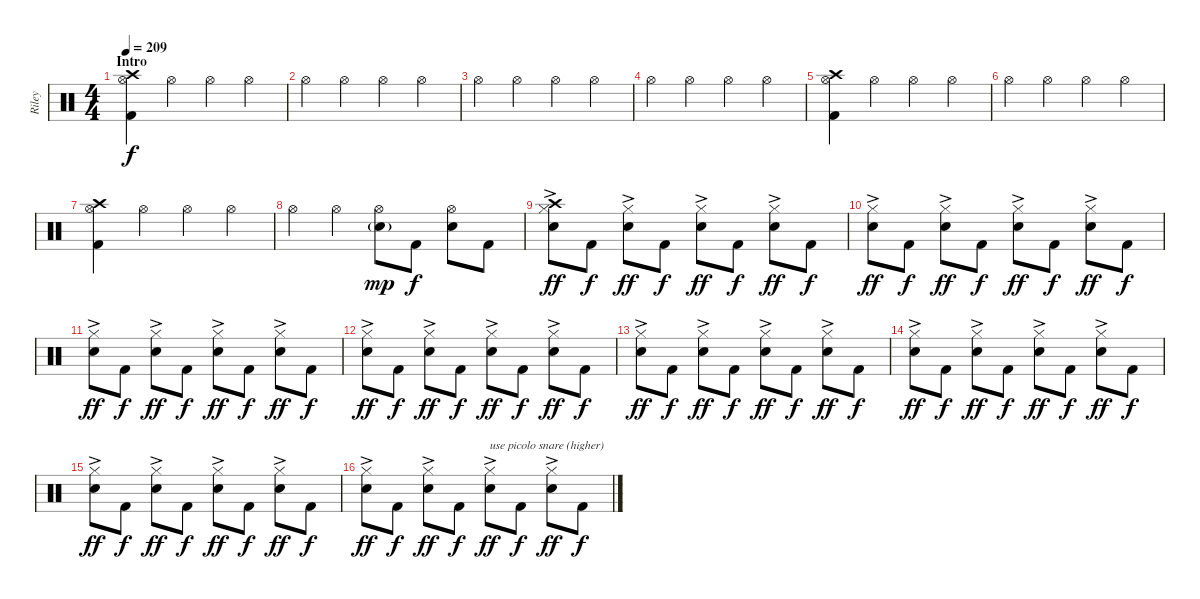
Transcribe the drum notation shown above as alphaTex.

\track ("Riley" "Riley") {instrument percussion}
\staff {score}
\articulation defaults
\ts (4 4)
\section ("" "Intro")
\tempo 209
\clef neutral
\ks c
("Crash high (hit)" "Hi-Hat (open)" "Kick (hit) 2").4{dy f} "Hi-Hat (open)".4 "Hi-Hat (open)".4 "Hi-Hat (open)".4 |
"Hi-Hat (open)".4 "Hi-Hat (open)".4 "Hi-Hat (open)".4 "Hi-Hat (open)".4 |
"Hi-Hat (open)".4 "Hi-Hat (open)".4 "Hi-Hat (open)".4 "Hi-Hat (open)".4 |
"Hi-Hat (open)".4 "Hi-Hat (open)".4 "Hi-Hat (open)".4 "Hi-Hat (open)".4 |
("Crash high (hit)" "Hi-Hat (open)" "Kick (hit) 2").4 "Hi-Hat (open)".4 "Hi-Hat (open)".4 "Hi-Hat (open)".4 |
"Hi-Hat (open)".4 "Hi-Hat (open)".4 "Hi-Hat (open)".4 "Hi-Hat (open)".4 |
("Crash high (hit)" "Hi-Hat (open)" "Kick (hit) 2").4 "Hi-Hat (open)".4 "Hi-Hat (open)".4 "Hi-Hat (open)".4 |
"Hi-Hat (open)".4 "Hi-Hat (open)".4 ("Hi-Hat (open)" "Electric Snare (hit)"{g}).8{dy mp} "Kick (hit) 2".8{dy f} ("Hi-Hat (open)" "Electric Snare (hit)").8 "Kick (hit) 2".8 |
("Crash high (hit)" "Hi-Hat (closed)" "Electric Snare (hit)"{ac}).8{dy ff} "Kick (hit) 2".8{dy f} ("Hi-Hat (closed)" "Electric Snare (hit)"{ac}).8{dy ff} "Kick (hit) 2".8{dy f} ("Hi-Hat (closed)" "Electric Snare (hit)"{ac}).8{dy ff} "Kick (hit) 2".8{dy f} ("Hi-Hat (closed)" "Electric Snare (hit)"{ac}).8{dy ff} "Kick (hit) 2".8{dy f} |
("Hi-Hat (closed)" "Electric Snare (hit)"{ac}).8{dy ff} "Kick (hit) 2".8{dy f} ("Hi-Hat (closed)" "Electric Snare (hit)"{ac}).8{dy ff} "Kick (hit) 2".8{dy f} ("Hi-Hat (closed)" "Electric Snare (hit)"{ac}).8{dy ff} "Kick (hit) 2".8{dy f} ("Hi-Hat (closed)" "Electric Snare (hit)"{ac}).8{dy ff} "Kick (hit) 2".8{dy f} |
("Hi-Hat (closed)" "Electric Snare (hit)"{ac}).8{dy ff} "Kick (hit) 2".8{dy f} ("Hi-Hat (closed)" "Electric Snare (hit)"{ac}).8{dy ff} "Kick (hit) 2".8{dy f} ("Hi-Hat (closed)" "Electric Snare (hit)"{ac}).8{dy ff} "Kick (hit) 2".8{dy f} ("Hi-Hat (closed)" "Electric Snare (hit)"{ac}).8{dy ff} "Kick (hit) 2".8{dy f} |
("Hi-Hat (closed)" "Electric Snare (hit)"{ac}).8{dy ff} "Kick (hit) 2".8{dy f} ("Hi-Hat (closed)" "Electric Snare (hit)"{ac}).8{dy ff} "Kick (hit) 2".8{dy f} ("Hi-Hat (closed)" "Electric Snare (hit)"{ac}).8{dy ff} "Kick (hit) 2".8{dy f} ("Hi-Hat (closed)" "Electric Snare (hit)"{ac}).8{dy ff} "Kick (hit) 2".8{dy f} |
("Hi-Hat (closed)" "Electric Snare (hit)"{ac}).8{dy ff} "Kick (hit) 2".8{dy f} ("Hi-Hat (closed)" "Electric Snare (hit)"{ac}).8{dy ff} "Kick (hit) 2".8{dy f} ("Hi-Hat (closed)" "Electric Snare (hit)"{ac}).8{dy ff} "Kick (hit) 2".8{dy f} ("Hi-Hat (closed)" "Electric Snare (hit)"{ac}).8{dy ff} "Kick (hit) 2".8{dy f} |
("Hi-Hat (closed)" "Electric Snare (hit)"{ac}).8{dy ff} "Kick (hit) 2".8{dy f} ("Hi-Hat (closed)" "Electric Snare (hit)"{ac}).8{dy ff} "Kick (hit) 2".8{dy f} ("Hi-Hat (closed)" "Electric Snare (hit)"{ac}).8{dy ff} "Kick (hit) 2".8{dy f} ("Hi-Hat (closed)" "Electric Snare (hit)"{ac}).8{dy ff} "Kick (hit) 2".8{dy f} |
("Hi-Hat (closed)" "Electric Snare (hit)"{ac}).8{dy ff} "Kick (hit) 2".8{dy f} ("Hi-Hat (closed)" "Electric Snare (hit)"{ac}).8{dy ff} "Kick (hit) 2".8{dy f} ("Hi-Hat (closed)" "Electric Snare (hit)"{ac}).8{dy ff} "Kick (hit) 2".8{dy f} ("Hi-Hat (closed)" "Electric Snare (hit)"{ac}).8{dy ff} "Kick (hit) 2".8{dy f} |
("Hi-Hat (closed)" "Electric Snare (hit)"{ac}).8{dy ff} "Kick (hit) 2".8{dy f} ("Hi-Hat (closed)" "Electric Snare (hit)"{ac}).8{dy ff} "Kick (hit) 2".8{dy f} ("Hi-Hat (closed)" "Electric Snare (hit)"{ac}).8{txt "use picolo snare (higher)" dy ff} "Kick (hit) 2".8{dy f} ("Hi-Hat (closed)" "Electric Snare (hit)"{ac}).8{dy ff} "Kick (hit) 2".8{dy f}
